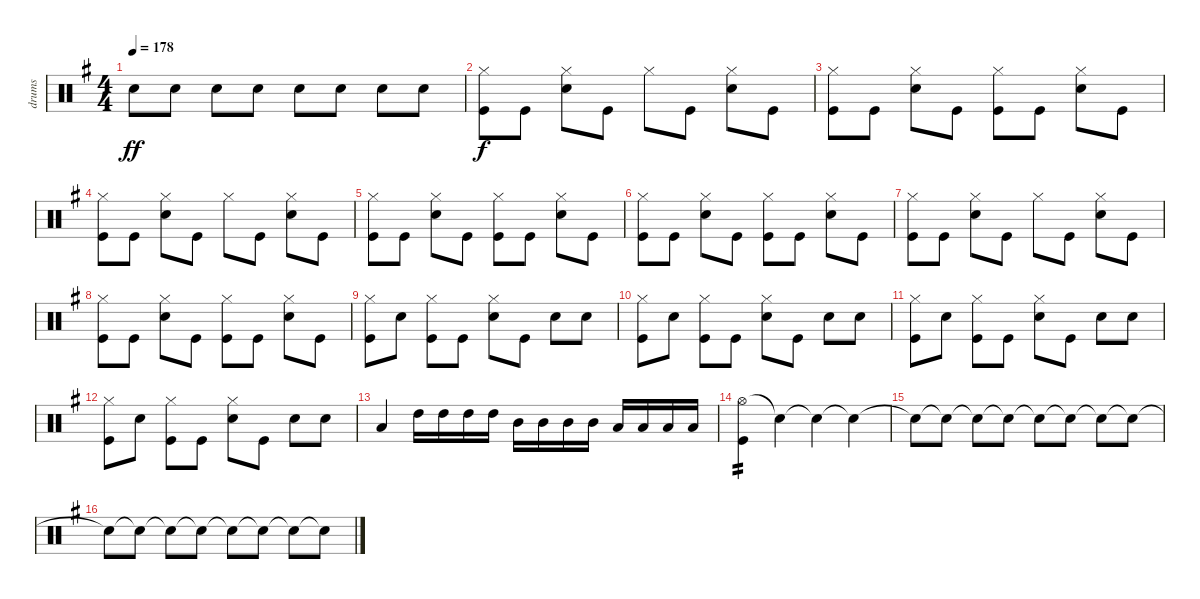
\track ("drums" "drums") {instrument percussion}
\staff {score}
\articulation defaults
\ts (4 4)
\tempo 178
\clef neutral
\ks eminor "Snare (hit) 2".8{dy ff} "Snare (hit) 2".8 "Snare (hit) 2".8 "Snare (hit) 2".8 "Snare (hit) 2".8 "Snare (hit) 2".8 "Snare (hit) 2".8 "Snare (hit) 2".8
|
("Hi-Hat (closed)" "Kick (hit)").8{dy f} "Kick (hit)".8 ("Hi-Hat (closed)" "Snare (hit) 2").8 "Kick (hit)".8 "Hi-Hat (closed)".8 "Kick (hit)".8 ("Hi-Hat (closed)" "Snare (hit) 2").8 "Kick (hit)".8 |
("Hi-Hat (closed)" "Kick (hit)").8 "Kick (hit)".8 ("Hi-Hat (closed)" "Snare (hit) 2").8 "Kick (hit)".8 ("Hi-Hat (closed)" "Kick (hit)").8 "Kick (hit)".8 ("Hi-Hat (closed)" "Snare (hit) 2").8 "Kick (hit)".8 |
("Hi-Hat (closed)" "Kick (hit)").8 "Kick (hit)".8 ("Hi-Hat (closed)" "Snare (hit) 2").8 "Kick (hit)".8 "Hi-Hat (closed)".8 "Kick (hit)".8 ("Hi-Hat (closed)" "Snare (hit) 2").8 "Kick (hit)".8 |
("Hi-Hat (closed)" "Kick (hit)").8 "Kick (hit)".8 ("Hi-Hat (closed)" "Snare (hit) 2").8 "Kick (hit)".8 ("Hi-Hat (closed)" "Kick (hit)").8 "Kick (hit)".8 ("Hi-Hat (closed)" "Snare (hit) 2").8 "Kick (hit)".8 |
("Hi-Hat (closed)" "Kick (hit)").8 "Kick (hit)".8 ("Hi-Hat (closed)" "Snare (hit) 2").8 "Kick (hit)".8 ("Hi-Hat (closed)" "Kick (hit)").8 "Kick (hit)".8 ("Hi-Hat (closed)" "Snare (hit) 2").8 "Kick (hit)".8 |
("Hi-Hat (closed)" "Kick (hit)").8 "Kick (hit)".8 ("Hi-Hat (closed)" "Snare (hit) 2").8 "Kick (hit)".8 "Hi-Hat (closed)".8 "Kick (hit)".8 ("Hi-Hat (closed)" "Snare (hit) 2").8 "Kick (hit)".8 |
("Hi-Hat (closed)" "Kick (hit)").8 "Kick (hit)".8 ("Hi-Hat (closed)" "Snare (hit) 2").8 "Kick (hit)".8 ("Hi-Hat (closed)" "Kick (hit)").8 "Kick (hit)".8 ("Hi-Hat (closed)" "Snare (hit) 2").8 "Kick (hit)".8 |
("Hi-Hat (closed)" "Kick (hit)").8 "Snare (hit) 2".8 ("Hi-Hat (closed)" "Kick (hit)").8 "Kick (hit)".8 ("Hi-Hat (closed)" "Snare (hit) 2").8 "Kick (hit)".8 "Snare (hit) 2".8 "Snare (hit) 2".8 |
("Hi-Hat (closed)" "Kick (hit)").8 "Snare (hit) 2".8 ("Hi-Hat (closed)" "Kick (hit)").8 "Kick (hit)".8 ("Hi-Hat (closed)" "Snare (hit) 2").8 "Kick (hit)".8 "Snare (hit) 2".8 "Snare (hit) 2".8 |
("Hi-Hat (closed)" "Kick (hit)").8 "Snare (hit) 2".8 ("Hi-Hat (closed)" "Kick (hit)").8 "Kick (hit)".8 ("Hi-Hat (closed)" "Snare (hit) 2").8 "Kick (hit)".8 "Snare (hit) 2".8 "Snare (hit) 2".8 |
("Hi-Hat (closed)" "Kick (hit)").8 "Snare (hit) 2".8 ("Hi-Hat (closed)" "Kick (hit)").8 "Kick (hit)".8 ("Hi-Hat (closed)" "Snare (hit) 2").8 "Kick (hit)".8 "Snare (hit) 2".8 "Snare (hit) 2".8 |
"Low Tom (hit)".4 "High Tom (hit)".16 "High Tom (hit)".16 "High Tom (hit)".16 "High Tom (hit)".16 "Mid Tom (hit)".16 "Mid Tom (hit)".16 "Mid Tom (hit)".16 "Mid Tom (hit)".16 "Low Tom (hit)".16 "Low Tom (hit)".16 "Low Tom (hit)".16 "Low Tom (hit)".16 |
("Hi-Hat (open)" "Kick (hit)").4{tp 2} "Snare (hit)"{t}.4 "Snare (hit)"{t}.4 "Snare (hit)"{t}.4 |
"Snare (hit)"{t}.8 "Snare (hit)"{t}.8 "Snare (hit)"{t}.8 "Snare (hit)"{t}.8 "Snare (hit)"{t}.8 "Snare (hit)"{t}.8 "Snare (hit)"{t}.8 "Snare (hit)"{t}.8 |
"Snare (hit)"{t}.8 "Snare (hit)"{t}.8 "Snare (hit)"{t}.8 "Snare (hit)"{t}.8 "Snare (hit)"{t}.8 "Snare (hit)"{t}.8 "Snare (hit)"{t}.8 "Snare (hit)"{t}.8
